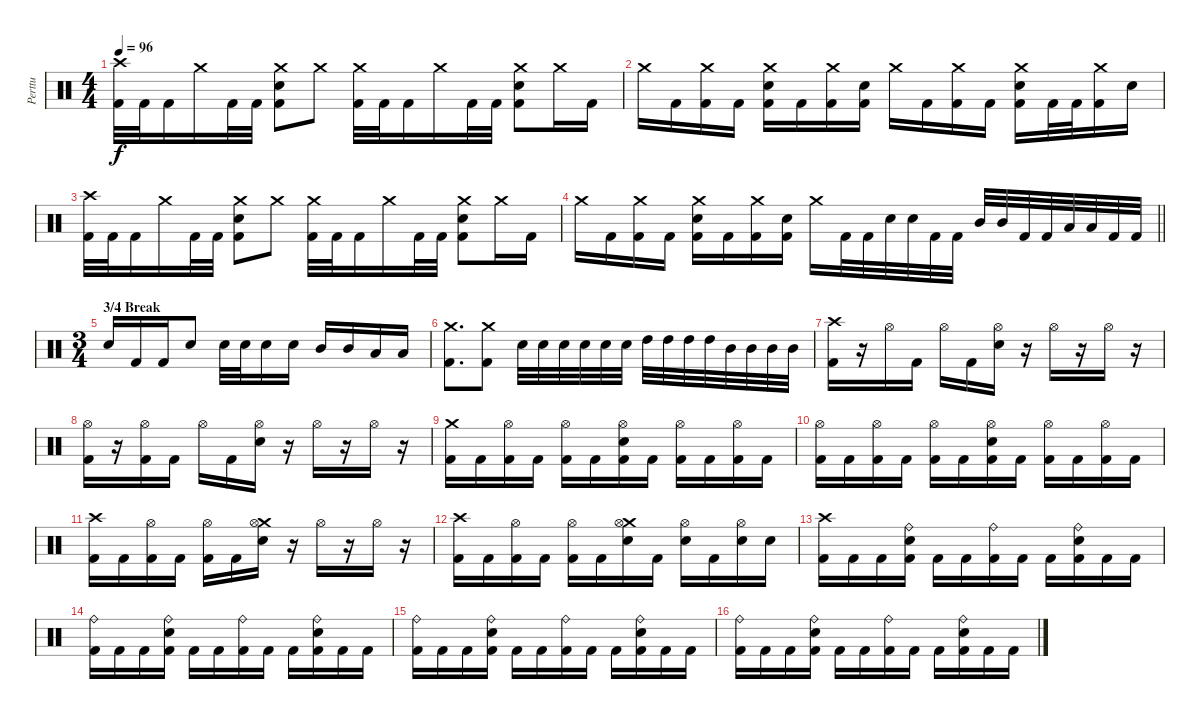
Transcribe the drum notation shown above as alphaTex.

\track ("Perttu" "Perttu") {instrument percussion}
\staff {score}
\articulation defaults
\ts (4 4)
\tempo 96
\clef neutral
\ks c
("Crash high (hit)" "Kick (hit) 2").32{dy f} "Kick (hit) 2".32 "Kick (hit) 2".16 "Crash medium (hit)".16 "Kick (hit) 2".32 "Kick (hit) 2".32 ("Crash medium (hit)" "Electric Snare (hit)" "Kick (hit) 2").8 "Crash medium (hit)".8 ("Crash medium (hit)" "Kick (hit) 2").32 "Kick (hit) 2".32 "Kick (hit) 2".16 "Crash medium (hit)".16 "Kick (hit) 2".32 "Kick (hit) 2".32 ("Crash medium (hit)" "Electric Snare (hit)" "Kick (hit) 2").8 "Crash medium (hit)".16 "Kick (hit) 2".16 |
"Crash medium (hit)".16 "Kick (hit) 2".16 ("Crash medium (hit)" "Kick (hit) 2").16 "Kick (hit) 2".16 ("Crash medium (hit)" "Electric Snare (hit)" "Kick (hit) 2").16 "Kick (hit) 2".16 ("Crash medium (hit)" "Kick (hit) 2").16 ("Electric Snare (hit)" "Kick (hit) 2").16 "Crash medium (hit)".16 "Kick (hit) 2".16 ("Crash medium (hit)" "Kick (hit) 2").16 "Kick (hit) 2".16 ("Crash medium (hit)" "Electric Snare (hit)" "Kick (hit) 2").16 "Kick (hit) 2".32 "Kick (hit) 2".32 ("Crash medium (hit)" "Kick (hit) 2").16 "Electric Snare (hit)".16 |
("Crash high (hit)" "Kick (hit) 2").32 "Kick (hit) 2".32 "Kick (hit) 2".16 "Crash medium (hit)".16 "Kick (hit) 2".32 "Kick (hit) 2".32 ("Crash medium (hit)" "Electric Snare (hit)" "Kick (hit) 2").8 "Crash medium (hit)".8 ("Crash medium (hit)" "Kick (hit) 2").32 "Kick (hit) 2".32 "Kick (hit) 2".16 "Crash medium (hit)".16 "Kick (hit) 2".32 "Kick (hit) 2".32 ("Crash medium (hit)" "Electric Snare (hit)" "Kick (hit) 2").8 "Crash medium (hit)".16 "Kick (hit) 2".16 |
\barLineRight lightlight "Crash medium (hit)".16 "Kick (hit) 2".16
("Crash medium (hit)" "Kick (hit) 2").16 "Kick (hit) 2".16 ("Crash medium (hit)" "Electric Snare (hit)" "Kick (hit) 2").16 "Kick (hit) 2".16 ("Crash medium (hit)" "Kick (hit) 2").16 ("Electric Snare (hit)" "Kick (hit) 2").16 "Crash medium (hit)".16 "Kick (hit) 2".32 "Kick (hit) 2".32 "Electric Snare (hit)".32 "Electric Snare (hit)".32 "Kick (hit) 2".32 "Kick (hit) 2".32 "Mid Tom (hit)".32 "Mid Tom (hit)".32 "Kick (hit) 2".32 "Kick (hit) 2".32 "Low Tom (hit)".32 "Low Tom (hit)".32 "Kick (hit) 2".32 "Kick (hit) 2".32 |
\ts (3 4)
\section ("" "3/4 Break")
"Electric Snare (hit)".16 "Kick (hit) 2".16 "Kick (hit) 2".16 "Electric Snare (hit)".8 "Electric Snare (hit)".32 "Electric Snare (hit)".32 "Electric Snare (hit)".16 "Electric Snare (hit)".16 "Mid Tom (hit)".16 "Mid Tom (hit)".16 "Low Tom (hit)".16 "Low Tom (hit)".16 |
("Crash medium (hit)" "Kick (hit) 2").8{d} ("Crash medium (hit)" "Kick (hit) 2").8 "Electric Snare (hit)".32 "Electric Snare (hit)".32 "Electric Snare (hit)".32 "Electric Snare (hit)".32 "Electric Snare (hit)".32 "Electric Snare (hit)".32 "High Tom (hit)".32 "High Tom (hit)".32 "High Tom (hit)".32 "High Tom (hit)".32 "Mid Tom (hit)".32 "Mid Tom (hit)".32 "Mid Tom (hit)".32 "Mid Tom (hit)".32 |
("Crash high (hit)" "Kick (hit) 2").16 r.16 "Hi-Hat (open)".16 "Kick (hit) 2".16 "Hi-Hat (open)".16 "Kick (hit) 2".16 ("Hi-Hat (open)" "Electric Snare (hit)").16 r.16 "Hi-Hat (open)".16 r.16 "Hi-Hat (open)".16 r.16 |
("Hi-Hat (open)" "Kick (hit) 2").16 r.16 ("Hi-Hat (open)" "Kick (hit) 2").16 "Kick (hit) 2".16 "Hi-Hat (open)".16 "Kick (hit) 2".16 ("Hi-Hat (open)" "Electric Snare (hit)").16 r.16 "Hi-Hat (open)".16 r.16 "Hi-Hat (open)".16 r.16 |
("Crash medium (hit)" "Kick (hit) 2").16 "Kick (hit) 2".16 ("Hi-Hat (open)" "Kick (hit) 2").16 "Kick (hit) 2".16 ("Hi-Hat (open)" "Kick (hit) 2").16 "Kick (hit) 2".16 ("Hi-Hat (open)" "Electric Snare (hit)" "Kick (hit) 2").16 "Kick (hit) 2".16 ("Hi-Hat (open)" "Kick (hit) 2").16 "Kick (hit) 2".16 ("Hi-Hat (open)" "Kick (hit) 2").16 "Kick (hit) 2".16 |
("Hi-Hat (open)" "Kick (hit) 2").16 "Kick (hit) 2".16 ("Hi-Hat (open)" "Kick (hit) 2").16 "Kick (hit) 2".16 ("Hi-Hat (open)" "Kick (hit) 2").16 "Kick (hit) 2".16 ("Hi-Hat (open)" "Electric Snare (hit)" "Kick (hit) 2").16 "Kick (hit) 2".16 ("Hi-Hat (open)" "Kick (hit) 2").16 "Kick (hit) 2".16 ("Hi-Hat (open)" "Kick (hit) 2").16 "Kick (hit) 2".16 |
("Crash high (hit)" "Kick (hit) 2").16 "Kick (hit) 2".16 ("Hi-Hat (open)" "Kick (hit) 2").16 "Kick (hit) 2".16 ("Hi-Hat (open)" "Kick (hit) 2").16 "Kick (hit) 2".16 ("Crash medium (hit)" "Hi-Hat (open)" "Electric Snare (hit)").16 r.16 "Hi-Hat (open)".16 r.16 "Hi-Hat (open)".16 r.16 |
("Crash high (hit)" "Kick (hit) 2").16 "Kick (hit) 2".16 ("Hi-Hat (open)" "Kick (hit) 2").16 "Kick (hit) 2".16 ("Hi-Hat (open)" "Kick (hit) 2").16 "Kick (hit) 2".16 ("Crash medium (hit)" "Hi-Hat (open)" "Electric Snare (hit)").16 "Kick (hit) 2".16 ("Hi-Hat (open)" "Electric Snare (hit)").16 "Kick (hit) 2".16 ("Hi-Hat (open)" "Electric Snare (hit)").16 "Electric Snare (hit)".16 |
("Crash high (hit)" "Kick (hit) 2").16 "Kick (hit) 2".16 "Kick (hit) 2".16 ("Ride (bell)" "Electric Snare (hit)" "Kick (hit) 2").16 "Kick (hit) 2".16 "Kick (hit) 2".16 ("Ride (bell)" "Kick (hit) 2").16 "Kick (hit) 2".16 "Kick (hit) 2".16 ("Ride (bell)" "Electric Snare (hit)" "Kick (hit) 2").16 "Kick (hit) 2".16 "Kick (hit) 2".16 |
("Ride (bell)" "Kick (hit) 2").16 "Kick (hit) 2".16 "Kick (hit) 2".16 ("Ride (bell)" "Electric Snare (hit)" "Kick (hit) 2").16 "Kick (hit) 2".16 "Kick (hit) 2".16 ("Ride (bell)" "Kick (hit) 2").16 "Kick (hit) 2".16 "Kick (hit) 2".16 ("Ride (bell)" "Electric Snare (hit)" "Kick (hit) 2").16 "Kick (hit) 2".16 "Kick (hit) 2".16 |
("Ride (bell)" "Kick (hit) 2").16 "Kick (hit) 2".16 "Kick (hit) 2".16 ("Ride (bell)" "Electric Snare (hit)" "Kick (hit) 2").16 "Kick (hit) 2".16 "Kick (hit) 2".16 ("Ride (bell)" "Kick (hit) 2").16 "Kick (hit) 2".16 "Kick (hit) 2".16 ("Ride (bell)" "Electric Snare (hit)" "Kick (hit) 2").16 "Kick (hit) 2".16 "Kick (hit) 2".16 |
("Ride (bell)" "Kick (hit) 2").16 "Kick (hit) 2".16 "Kick (hit) 2".16 ("Ride (bell)" "Electric Snare (hit)" "Kick (hit) 2").16 "Kick (hit) 2".16 "Kick (hit) 2".16 ("Ride (bell)" "Kick (hit) 2").16 "Kick (hit) 2".16 "Kick (hit) 2".16 ("Ride (bell)" "Electric Snare (hit)" "Kick (hit) 2").16 "Kick (hit) 2".16 "Kick (hit) 2".16
